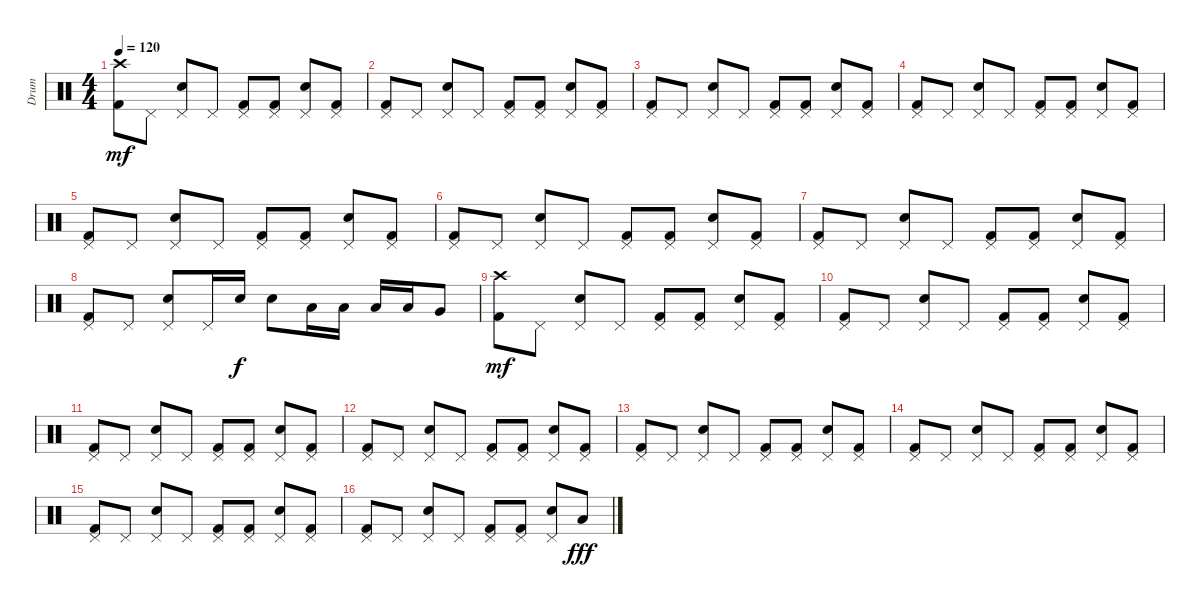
\track ("Drum" "Drum") {instrument percussion}
\staff {score}
\articulation defaults
\ts (4 4)
\tempo 120
\clef neutral
\ks c
("Crash high (hit)" "Kick (hit) 2").8{dy mf} "Pedal Hi-Hat (hit)".8 ("Pedal Hi-Hat (hit)" "Electric Snare (hit)").8 "Pedal Hi-Hat (hit)".8 ("Pedal Hi-Hat (hit)" "Kick (hit) 2").8 ("Pedal Hi-Hat (hit)" "Kick (hit) 2").8 ("Pedal Hi-Hat (hit)" "Electric Snare (hit)").8 ("Pedal Hi-Hat (hit)" "Kick (hit) 2").8 |
("Pedal Hi-Hat (hit)" "Kick (hit) 2").8 "Pedal Hi-Hat (hit)".8 ("Pedal Hi-Hat (hit)" "Electric Snare (hit)").8 "Pedal Hi-Hat (hit)".8 ("Pedal Hi-Hat (hit)" "Kick (hit) 2").8 ("Pedal Hi-Hat (hit)" "Kick (hit) 2").8 ("Pedal Hi-Hat (hit)" "Electric Snare (hit)").8 ("Pedal Hi-Hat (hit)" "Kick (hit) 2").8 |
("Pedal Hi-Hat (hit)" "Kick (hit) 2").8 "Pedal Hi-Hat (hit)".8 ("Pedal Hi-Hat (hit)" "Electric Snare (hit)").8 "Pedal Hi-Hat (hit)".8 ("Pedal Hi-Hat (hit)" "Kick (hit) 2").8 ("Pedal Hi-Hat (hit)" "Kick (hit) 2").8 ("Pedal Hi-Hat (hit)" "Electric Snare (hit)").8 ("Pedal Hi-Hat (hit)" "Kick (hit) 2").8 |
("Pedal Hi-Hat (hit)" "Kick (hit) 2").8 "Pedal Hi-Hat (hit)".8 ("Pedal Hi-Hat (hit)" "Electric Snare (hit)").8 "Pedal Hi-Hat (hit)".8 ("Pedal Hi-Hat (hit)" "Kick (hit) 2").8 ("Pedal Hi-Hat (hit)" "Kick (hit) 2").8 ("Pedal Hi-Hat (hit)" "Electric Snare (hit)").8 ("Pedal Hi-Hat (hit)" "Kick (hit) 2").8 |
("Pedal Hi-Hat (hit)" "Kick (hit) 2").8 "Pedal Hi-Hat (hit)".8 ("Pedal Hi-Hat (hit)" "Electric Snare (hit)").8 "Pedal Hi-Hat (hit)".8 ("Pedal Hi-Hat (hit)" "Kick (hit) 2").8 ("Pedal Hi-Hat (hit)" "Kick (hit) 2").8 ("Pedal Hi-Hat (hit)" "Electric Snare (hit)").8 ("Pedal Hi-Hat (hit)" "Kick (hit) 2").8 |
("Pedal Hi-Hat (hit)" "Kick (hit) 2").8 "Pedal Hi-Hat (hit)".8 ("Pedal Hi-Hat (hit)" "Electric Snare (hit)").8 "Pedal Hi-Hat (hit)".8 ("Pedal Hi-Hat (hit)" "Kick (hit) 2").8 ("Pedal Hi-Hat (hit)" "Kick (hit) 2").8 ("Pedal Hi-Hat (hit)" "Electric Snare (hit)").8 ("Pedal Hi-Hat (hit)" "Kick (hit) 2").8 |
("Pedal Hi-Hat (hit)" "Kick (hit) 2").8 "Pedal Hi-Hat (hit)".8 ("Pedal Hi-Hat (hit)" "Electric Snare (hit)").8 "Pedal Hi-Hat (hit)".8 ("Pedal Hi-Hat (hit)" "Kick (hit) 2").8 ("Pedal Hi-Hat (hit)" "Kick (hit) 2").8 ("Pedal Hi-Hat (hit)" "Electric Snare (hit)").8 ("Pedal Hi-Hat (hit)" "Kick (hit) 2").8 |
("Pedal Hi-Hat (hit)" "Kick (hit) 2").8 "Pedal Hi-Hat (hit)".8 ("Pedal Hi-Hat (hit)" "Electric Snare (hit)").8 "Pedal Hi-Hat (hit)".16 "Electric Snare (hit)".16{dy f} "Electric Snare (hit)".8 "Low Tom (hit)".16 "Low Tom (hit)".16 "Low Tom (hit)".16 "Low Tom (hit)".16 "Very Low Tom (hit)".8 |
("Crash high (hit)" "Kick (hit) 2").8{dy mf} "Pedal Hi-Hat (hit)".8 ("Pedal Hi-Hat (hit)" "Electric Snare (hit)").8 "Pedal Hi-Hat (hit)".8 ("Pedal Hi-Hat (hit)" "Kick (hit) 2").8 ("Pedal Hi-Hat (hit)" "Kick (hit) 2").8 ("Pedal Hi-Hat (hit)" "Electric Snare (hit)").8 ("Pedal Hi-Hat (hit)" "Kick (hit) 2").8 |
("Pedal Hi-Hat (hit)" "Kick (hit) 2").8 "Pedal Hi-Hat (hit)".8 ("Pedal Hi-Hat (hit)" "Electric Snare (hit)").8 "Pedal Hi-Hat (hit)".8 ("Pedal Hi-Hat (hit)" "Kick (hit) 2").8 ("Pedal Hi-Hat (hit)" "Kick (hit) 2").8 ("Pedal Hi-Hat (hit)" "Electric Snare (hit)").8 ("Pedal Hi-Hat (hit)" "Kick (hit) 2").8 |
("Pedal Hi-Hat (hit)" "Kick (hit) 2").8 "Pedal Hi-Hat (hit)".8 ("Pedal Hi-Hat (hit)" "Electric Snare (hit)").8 "Pedal Hi-Hat (hit)".8 ("Pedal Hi-Hat (hit)" "Kick (hit) 2").8 ("Pedal Hi-Hat (hit)" "Kick (hit) 2").8 ("Pedal Hi-Hat (hit)" "Electric Snare (hit)").8 ("Pedal Hi-Hat (hit)" "Kick (hit) 2").8 |
("Pedal Hi-Hat (hit)" "Kick (hit) 2").8 "Pedal Hi-Hat (hit)".8 ("Pedal Hi-Hat (hit)" "Electric Snare (hit)").8 "Pedal Hi-Hat (hit)".8 ("Pedal Hi-Hat (hit)" "Kick (hit) 2").8 ("Pedal Hi-Hat (hit)" "Kick (hit) 2").8 ("Pedal Hi-Hat (hit)" "Electric Snare (hit)").8 ("Pedal Hi-Hat (hit)" "Kick (hit) 2").8 |
("Pedal Hi-Hat (hit)" "Kick (hit) 2").8 "Pedal Hi-Hat (hit)".8 ("Pedal Hi-Hat (hit)" "Electric Snare (hit)").8 "Pedal Hi-Hat (hit)".8 ("Pedal Hi-Hat (hit)" "Kick (hit) 2").8 ("Pedal Hi-Hat (hit)" "Kick (hit) 2").8 ("Pedal Hi-Hat (hit)" "Electric Snare (hit)").8 ("Pedal Hi-Hat (hit)" "Kick (hit) 2").8 |
("Pedal Hi-Hat (hit)" "Kick (hit) 2").8 "Pedal Hi-Hat (hit)".8 ("Pedal Hi-Hat (hit)" "Electric Snare (hit)").8 "Pedal Hi-Hat (hit)".8 ("Pedal Hi-Hat (hit)" "Kick (hit) 2").8 ("Pedal Hi-Hat (hit)" "Kick (hit) 2").8 ("Pedal Hi-Hat (hit)" "Electric Snare (hit)").8 ("Pedal Hi-Hat (hit)" "Kick (hit) 2").8 |
("Pedal Hi-Hat (hit)" "Kick (hit) 2").8 "Pedal Hi-Hat (hit)".8 ("Pedal Hi-Hat (hit)" "Electric Snare (hit)").8 "Pedal Hi-Hat (hit)".8 ("Pedal Hi-Hat (hit)" "Kick (hit) 2").8 ("Pedal Hi-Hat (hit)" "Kick (hit) 2").8 ("Pedal Hi-Hat (hit)" "Electric Snare (hit)").8 ("Pedal Hi-Hat (hit)" "Kick (hit) 2").8 |
("Pedal Hi-Hat (hit)" "Kick (hit) 2").8 "Pedal Hi-Hat (hit)".8 ("Pedal Hi-Hat (hit)" "Electric Snare (hit)").8 "Pedal Hi-Hat (hit)".8 ("Pedal Hi-Hat (hit)" "Kick (hit) 2").8 ("Pedal Hi-Hat (hit)" "Kick (hit) 2").8 ("Pedal Hi-Hat (hit)" "Electric Snare (hit)").8 "Low Floor Tom (hit)".8{dy fff}
